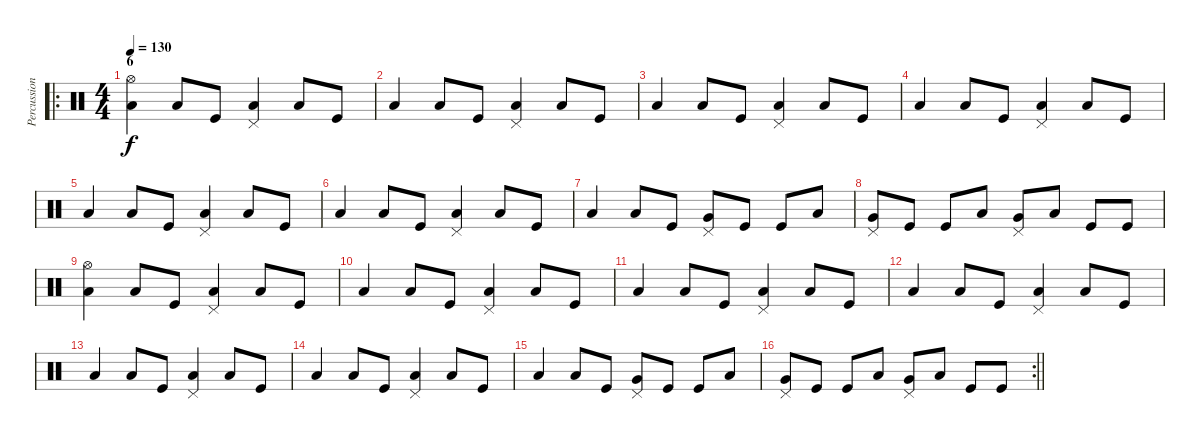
\track ("Percussioni" "Percussion") {instrument percussion}
\staff {score}
\articulation defaults
\ro
\ts (4 4)
\section ("" "6")
\tempo 130
\clef neutral
\ks c
("Hi-Hat (open)" "Low Tom (hit)").4{dy f} "Low Floor Tom (hit)".8 "Kick (hit)".8 ("Low Floor Tom (hit)" "Pedal Hi-Hat (hit)").4 "Low Floor Tom (hit)".8 "Kick (hit)".8 |
"Low Floor Tom (hit)".4 "Low Floor Tom (hit)".8 "Kick (hit)".8 ("Low Floor Tom (hit)" "Pedal Hi-Hat (hit)").4 "Low Floor Tom (hit)".8 "Kick (hit)".8 |
"Low Floor Tom (hit)".4 "Low Floor Tom (hit)".8 "Kick (hit)".8 ("Low Floor Tom (hit)" "Pedal Hi-Hat (hit)").4 "Low Floor Tom (hit)".8 "Kick (hit)".8 |
"Low Floor Tom (hit)".4 "Low Floor Tom (hit)".8 "Kick (hit)".8 ("Low Floor Tom (hit)" "Pedal Hi-Hat (hit)").4 "Low Floor Tom (hit)".8 "Kick (hit)".8 |
"Low Floor Tom (hit)".4 "Low Floor Tom (hit)".8 "Kick (hit)".8 ("Low Floor Tom (hit)" "Pedal Hi-Hat (hit)").4 "Low Floor Tom (hit)".8 "Kick (hit)".8 |
"Low Floor Tom (hit)".4 "Low Floor Tom (hit)".8 "Kick (hit)".8 ("Low Floor Tom (hit)" "Pedal Hi-Hat (hit)").4 "Low Floor Tom (hit)".8 "Kick (hit)".8 |
"Low Floor Tom (hit)".4 "Low Floor Tom (hit)".8 "Kick (hit)".8 ("Very Low Tom (hit)" "Pedal Hi-Hat (hit)").8 "Kick (hit)".8 "Kick (hit)".8 "Low Floor Tom (hit)".8 |
("Very Low Tom (hit)" "Pedal Hi-Hat (hit)").8 "Kick (hit)".8 "Kick (hit)".8 "Low Floor Tom (hit)".8 ("Very Low Tom (hit)" "Pedal Hi-Hat (hit)").8 "Low Floor Tom (hit)".8 "Kick (hit)".8 "Kick (hit)".8 |
("Hi-Hat (open)" "Low Tom (hit)").4 "Low Floor Tom (hit)".8 "Kick (hit)".8 ("Low Floor Tom (hit)" "Pedal Hi-Hat (hit)").4 "Low Floor Tom (hit)".8 "Kick (hit)".8 |
"Low Floor Tom (hit)".4 "Low Floor Tom (hit)".8 "Kick (hit)".8 ("Low Floor Tom (hit)" "Pedal Hi-Hat (hit)").4 "Low Floor Tom (hit)".8 "Kick (hit)".8 |
"Low Floor Tom (hit)".4 "Low Floor Tom (hit)".8 "Kick (hit)".8 ("Low Floor Tom (hit)" "Pedal Hi-Hat (hit)").4 "Low Floor Tom (hit)".8 "Kick (hit)".8 |
"Low Floor Tom (hit)".4 "Low Floor Tom (hit)".8 "Kick (hit)".8 ("Low Floor Tom (hit)" "Pedal Hi-Hat (hit)").4 "Low Floor Tom (hit)".8 "Kick (hit)".8 |
"Low Floor Tom (hit)".4 "Low Floor Tom (hit)".8 "Kick (hit)".8 ("Low Floor Tom (hit)" "Pedal Hi-Hat (hit)").4 "Low Floor Tom (hit)".8 "Kick (hit)".8 |
"Low Floor Tom (hit)".4 "Low Floor Tom (hit)".8 "Kick (hit)".8 ("Low Floor Tom (hit)" "Pedal Hi-Hat (hit)").4 "Low Floor Tom (hit)".8 "Kick (hit)".8 |
"Low Floor Tom (hit)".4 "Low Floor Tom (hit)".8 "Kick (hit)".8 ("Very Low Tom (hit)" "Pedal Hi-Hat (hit)").8 "Kick (hit)".8 "Kick (hit)".8 "Low Floor Tom (hit)".8 |
\rc 2
\barLineRight lightlight
("Very Low Tom (hit)" "Pedal Hi-Hat (hit)").8 "Kick (hit)".8 "Kick (hit)".8 "Low Floor Tom (hit)".8 ("Very Low Tom (hit)" "Pedal Hi-Hat (hit)").8 "Low Floor Tom (hit)".8 "Kick (hit)".8 "Kick (hit)".8
